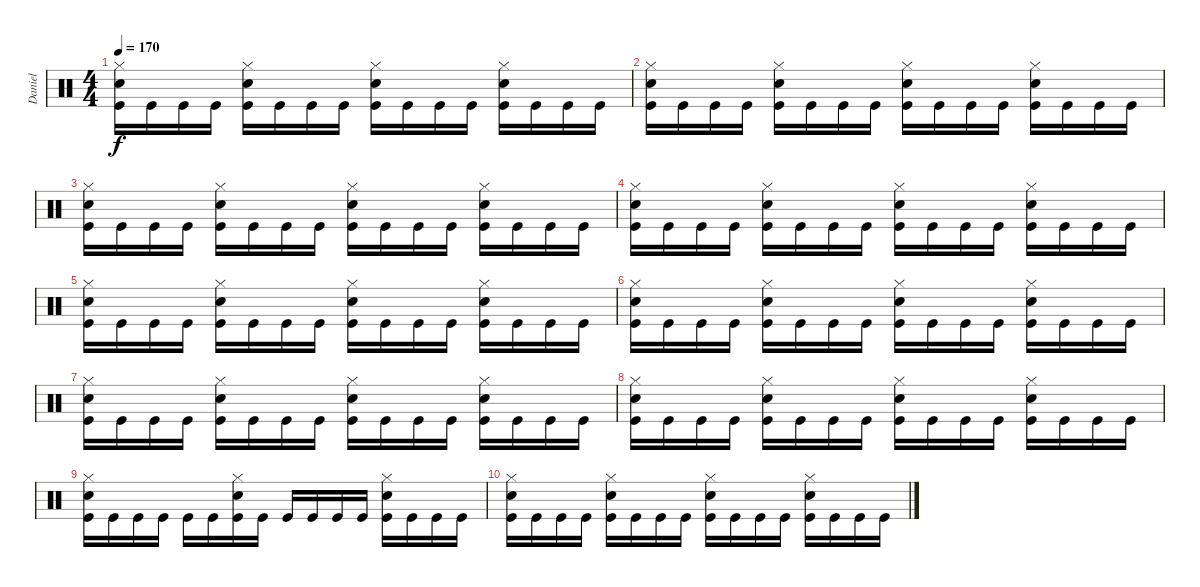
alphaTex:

\track ("Daniel" "Daniel") {instrument percussion}
\staff {score}
\articulation defaults
\ts (4 4)
\tempo 170
\clef neutral
\ks c
("Kick (hit)" "Snare (hit) 2" "Hi-Hat (closed)").16{dy f} "Kick (hit)".16 "Kick (hit)".16 "Kick (hit)".16 ("Kick (hit)" "Snare (hit) 2" "Hi-Hat (closed)").16 "Kick (hit)".16 "Kick (hit)".16 "Kick (hit)".16 ("Kick (hit)" "Snare (hit) 2" "Hi-Hat (closed)").16 "Kick (hit)".16 "Kick (hit)".16 "Kick (hit)".16 ("Kick (hit)" "Snare (hit) 2" "Hi-Hat (closed)").16 "Kick (hit)".16 "Kick (hit)".16 "Kick (hit)".16 |
("Kick (hit)" "Snare (hit) 2" "Hi-Hat (closed)").16 "Kick (hit)".16 "Kick (hit)".16 "Kick (hit)".16 ("Kick (hit)" "Snare (hit) 2" "Hi-Hat (closed)").16 "Kick (hit)".16 "Kick (hit)".16 "Kick (hit)".16 ("Kick (hit)" "Snare (hit) 2" "Hi-Hat (closed)").16 "Kick (hit)".16 "Kick (hit)".16 "Kick (hit)".16 ("Kick (hit)" "Snare (hit) 2" "Hi-Hat (closed)").16 "Kick (hit)".16 "Kick (hit)".16 "Kick (hit)".16 |
("Kick (hit)" "Snare (hit) 2" "Hi-Hat (closed)").16 "Kick (hit)".16 "Kick (hit)".16 "Kick (hit)".16 ("Kick (hit)" "Snare (hit) 2" "Hi-Hat (closed)").16 "Kick (hit)".16 "Kick (hit)".16 "Kick (hit)".16 ("Kick (hit)" "Snare (hit) 2" "Hi-Hat (closed)").16 "Kick (hit)".16 "Kick (hit)".16 "Kick (hit)".16 ("Kick (hit)" "Snare (hit) 2" "Hi-Hat (closed)").16 "Kick (hit)".16 "Kick (hit)".16 "Kick (hit)".16 |
("Kick (hit)" "Snare (hit) 2" "Hi-Hat (closed)").16 "Kick (hit)".16 "Kick (hit)".16 "Kick (hit)".16 ("Kick (hit)" "Snare (hit) 2" "Hi-Hat (closed)").16 "Kick (hit)".16 "Kick (hit)".16 "Kick (hit)".16 ("Kick (hit)" "Snare (hit) 2" "Hi-Hat (closed)").16 "Kick (hit)".16 "Kick (hit)".16 "Kick (hit)".16 ("Kick (hit)" "Snare (hit) 2" "Hi-Hat (closed)").16 "Kick (hit)".16 "Kick (hit)".16 "Kick (hit)".16 |
("Kick (hit)" "Snare (hit) 2" "Hi-Hat (closed)").16 "Kick (hit)".16 "Kick (hit)".16 "Kick (hit)".16 ("Kick (hit)" "Snare (hit) 2" "Hi-Hat (closed)").16 "Kick (hit)".16 "Kick (hit)".16 "Kick (hit)".16 ("Kick (hit)" "Snare (hit) 2" "Hi-Hat (closed)").16 "Kick (hit)".16 "Kick (hit)".16 "Kick (hit)".16 ("Kick (hit)" "Snare (hit) 2" "Hi-Hat (closed)").16 "Kick (hit)".16 "Kick (hit)".16 "Kick (hit)".16 |
("Kick (hit)" "Snare (hit) 2" "Hi-Hat (closed)").16 "Kick (hit)".16 "Kick (hit)".16 "Kick (hit)".16 ("Kick (hit)" "Snare (hit) 2" "Hi-Hat (closed)").16 "Kick (hit)".16 "Kick (hit)".16 "Kick (hit)".16 ("Kick (hit)" "Snare (hit) 2" "Hi-Hat (closed)").16 "Kick (hit)".16 "Kick (hit)".16 "Kick (hit)".16 ("Kick (hit)" "Snare (hit) 2" "Hi-Hat (closed)").16 "Kick (hit)".16 "Kick (hit)".16 "Kick (hit)".16 |
("Kick (hit)" "Snare (hit) 2" "Hi-Hat (closed)").16 "Kick (hit)".16 "Kick (hit)".16 "Kick (hit)".16 ("Kick (hit)" "Snare (hit) 2" "Hi-Hat (closed)").16 "Kick (hit)".16 "Kick (hit)".16 "Kick (hit)".16 ("Kick (hit)" "Snare (hit) 2" "Hi-Hat (closed)").16 "Kick (hit)".16 "Kick (hit)".16 "Kick (hit)".16 ("Kick (hit)" "Snare (hit) 2" "Hi-Hat (closed)").16 "Kick (hit)".16 "Kick (hit)".16 "Kick (hit)".16 |
("Kick (hit)" "Snare (hit) 2" "Hi-Hat (closed)").16 "Kick (hit)".16 "Kick (hit)".16 "Kick (hit)".16 ("Kick (hit)" "Snare (hit) 2" "Hi-Hat (closed)").16 "Kick (hit)".16 "Kick (hit)".16 "Kick (hit)".16 ("Kick (hit)" "Snare (hit) 2" "Hi-Hat (closed)").16 "Kick (hit)".16 "Kick (hit)".16 "Kick (hit)".16 ("Kick (hit)" "Snare (hit) 2" "Hi-Hat (closed)").16 "Kick (hit)".16 "Kick (hit)".16 "Kick (hit)".16 |
("Kick (hit)" "Snare (hit) 2" "Hi-Hat (closed)").16 "Kick (hit)".16 "Kick (hit)".16 "Kick (hit)".16 "Kick (hit)".16 "Kick (hit)".16 ("Kick (hit)" "Snare (hit) 2" "Hi-Hat (closed)").16 "Kick (hit)".16 "Kick (hit)".16 "Kick (hit)".16 "Kick (hit)".16 "Kick (hit)".16 ("Kick (hit)" "Snare (hit) 2" "Hi-Hat (closed)").16 "Kick (hit)".16 "Kick (hit)".16 "Kick (hit)".16 |
("Kick (hit)" "Snare (hit) 2" "Hi-Hat (closed)").16 "Kick (hit)".16 "Kick (hit)".16 "Kick (hit)".16 ("Kick (hit)" "Snare (hit) 2" "Hi-Hat (closed)").16 "Kick (hit)".16 "Kick (hit)".16 "Kick (hit)".16 ("Kick (hit)" "Snare (hit) 2" "Hi-Hat (closed)").16 "Kick (hit)".16 "Kick (hit)".16 "Kick (hit)".16 ("Kick (hit)" "Snare (hit) 2" "Hi-Hat (closed)").16 "Kick (hit)".16 "Kick (hit)".16 "Kick (hit)".16
